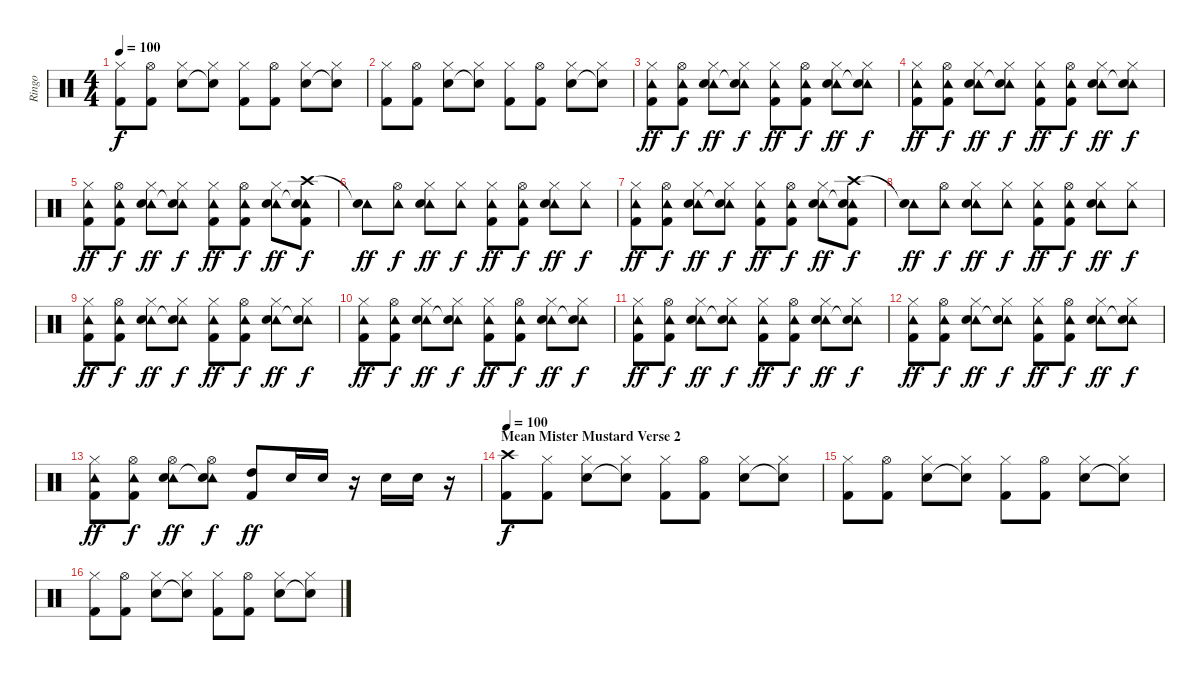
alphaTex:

\track ("Ringo" "Ringo") {instrument percussion}
\staff {score}
\articulation defaults
\ts (4 4)
\tempo 100
\clef neutral
\ks c
("Hi-Hat (closed)" "Kick (hit) 2").8{dy f} ("Hi-Hat (open)" "Kick (hit) 2").8 ("Hi-Hat (closed)" "Snare (hit) 2").8 ("Hi-Hat (closed)" "Snare (hit)"{t}).8 ("Hi-Hat (closed)" "Kick (hit) 2").8 ("Hi-Hat (open)" "Kick (hit) 2").8 ("Hi-Hat (closed)" "Snare (hit) 2").8 ("Hi-Hat (closed)" "Snare (hit)"{t}).8 |
("Hi-Hat (closed)" "Kick (hit) 2").8 ("Hi-Hat (open)" "Kick (hit) 2").8 ("Hi-Hat (closed)" "Snare (hit) 2").8 ("Hi-Hat (closed)" "Snare (hit)"{t}).8 ("Hi-Hat (closed)" "Kick (hit) 2").8 ("Hi-Hat (open)" "Kick (hit) 2").8 ("Hi-Hat (closed)" "Snare (hit) 2").8 ("Hi-Hat (closed)" "Snare (hit)"{t}).8 |
("Tambourine (hit)" "Hi-Hat (closed)" "Kick (hit) 2").8{dy ff} ("Tambourine (hit)" "Hi-Hat (open)" "Kick (hit) 2").8{dy f} ("Tambourine (hit)" "Hi-Hat (closed)" "Snare (hit) 2").8{dy ff} ("Tambourine (hit)" "Hi-Hat (closed)" "Snare (hit)"{t}).8{dy f} ("Tambourine (hit)" "Hi-Hat (closed)" "Kick (hit) 2").8{dy ff} ("Tambourine (hit)" "Hi-Hat (open)" "Kick (hit) 2").8{dy f} ("Tambourine (hit)" "Hi-Hat (closed)" "Snare (hit) 2").8{dy ff} ("Tambourine (hit)" "Hi-Hat (closed)" "Snare (hit)"{t}).8{dy f} |
("Tambourine (hit)" "Hi-Hat (closed)" "Kick (hit) 2").8{dy ff} ("Tambourine (hit)" "Hi-Hat (open)" "Kick (hit) 2").8{dy f} ("Tambourine (hit)" "Hi-Hat (closed)" "Snare (hit) 2").8{dy ff} ("Tambourine (hit)" "Hi-Hat (closed)" "Snare (hit)"{t}).8{dy f} ("Tambourine (hit)" "Hi-Hat (closed)" "Kick (hit) 2").8{dy ff} ("Tambourine (hit)" "Hi-Hat (open)" "Kick (hit) 2").8{dy f} ("Tambourine (hit)" "Hi-Hat (closed)" "Snare (hit) 2").8{dy ff} ("Tambourine (hit)" "Hi-Hat (closed)" "Snare (hit)"{t}).8{dy f} |
("Tambourine (hit)" "Hi-Hat (closed)" "Kick (hit) 2").8{dy ff} ("Tambourine (hit)" "Hi-Hat (open)" "Kick (hit) 2").8{dy f} ("Tambourine (hit)" "Hi-Hat (closed)" "Snare (hit) 2").8{dy ff} ("Tambourine (hit)" "Hi-Hat (closed)" "Snare (hit)"{t}).8{dy f} ("Tambourine (hit)" "Hi-Hat (closed)" "Kick (hit) 2").8{dy ff} ("Tambourine (hit)" "Hi-Hat (open)" "Kick (hit) 2").8{dy f} ("Tambourine (hit)" "Hi-Hat (closed)" "Snare (hit) 2").8{dy ff} ("Tambourine (hit)" "Crash high (hit)" "Snare (hit)"{t} "Kick (hit) 2").8{dy f} |
("Tambourine (hit)" "Snare (hit)"{t}).8{dy ff} ("Tambourine (hit)" "Hi-Hat (open)").8{dy f} ("Tambourine (hit)" "Hi-Hat (closed)" "Snare (hit) 2").8{dy ff} ("Tambourine (hit)" "Hi-Hat (closed)").8{dy f} ("Tambourine (hit)" "Hi-Hat (closed)" "Kick (hit) 2").8{dy ff} ("Tambourine (hit)" "Hi-Hat (open)" "Kick (hit) 2").8{dy f} ("Tambourine (hit)" "Hi-Hat (closed)" "Snare (hit) 2").8{dy ff} ("Tambourine (hit)" "Hi-Hat (closed)").8{dy f} |
("Tambourine (hit)" "Hi-Hat (closed)" "Kick (hit) 2").8{dy ff} ("Tambourine (hit)" "Hi-Hat (open)" "Kick (hit) 2").8{dy f} ("Tambourine (hit)" "Hi-Hat (closed)" "Snare (hit) 2").8{dy ff} ("Tambourine (hit)" "Hi-Hat (closed)" "Snare (hit)"{t}).8{dy f} ("Tambourine (hit)" "Hi-Hat (closed)" "Kick (hit) 2").8{dy ff} ("Tambourine (hit)" "Hi-Hat (open)" "Kick (hit) 2").8{dy f} ("Tambourine (hit)" "Hi-Hat (closed)" "Snare (hit) 2").8{dy ff} ("Tambourine (hit)" "Crash high (hit)" "Snare (hit)"{t} "Kick (hit) 2").8{dy f} |
("Tambourine (hit)" "Snare (hit)"{t}).8{dy ff} ("Tambourine (hit)" "Hi-Hat (open)").8{dy f} ("Tambourine (hit)" "Hi-Hat (closed)" "Snare (hit) 2").8{dy ff} ("Tambourine (hit)" "Hi-Hat (closed)").8{dy f} ("Tambourine (hit)" "Hi-Hat (closed)" "Kick (hit) 2").8{dy ff} ("Tambourine (hit)" "Hi-Hat (open)" "Kick (hit) 2").8{dy f} ("Tambourine (hit)" "Hi-Hat (closed)" "Snare (hit) 2").8{dy ff} ("Tambourine (hit)" "Hi-Hat (closed)").8{dy f} |
("Tambourine (hit)" "Hi-Hat (closed)" "Kick (hit) 2").8{dy ff} ("Tambourine (hit)" "Hi-Hat (open)" "Kick (hit) 2").8{dy f} ("Tambourine (hit)" "Hi-Hat (closed)" "Snare (hit) 2").8{dy ff} ("Tambourine (hit)" "Hi-Hat (closed)" "Snare (hit)"{t}).8{dy f} ("Tambourine (hit)" "Hi-Hat (closed)" "Kick (hit) 2").8{dy ff} ("Tambourine (hit)" "Hi-Hat (open)" "Kick (hit) 2").8{dy f} ("Tambourine (hit)" "Hi-Hat (closed)" "Snare (hit) 2").8{dy ff} ("Tambourine (hit)" "Hi-Hat (closed)" "Snare (hit)"{t}).8{dy f} |
("Tambourine (hit)" "Hi-Hat (closed)" "Kick (hit) 2").8{dy ff} ("Tambourine (hit)" "Hi-Hat (open)" "Kick (hit) 2").8{dy f} ("Tambourine (hit)" "Hi-Hat (closed)" "Snare (hit) 2").8{dy ff} ("Tambourine (hit)" "Hi-Hat (closed)" "Snare (hit)"{t}).8{dy f} ("Tambourine (hit)" "Hi-Hat (closed)" "Kick (hit) 2").8{dy ff} ("Tambourine (hit)" "Hi-Hat (open)" "Kick (hit) 2").8{dy f} ("Tambourine (hit)" "Hi-Hat (closed)" "Snare (hit) 2").8{dy ff} ("Tambourine (hit)" "Hi-Hat (closed)" "Snare (hit)"{t}).8{dy f} |
("Tambourine (hit)" "Hi-Hat (closed)" "Kick (hit) 2").8{dy ff} ("Tambourine (hit)" "Hi-Hat (open)" "Kick (hit) 2").8{dy f} ("Tambourine (hit)" "Hi-Hat (closed)" "Snare (hit) 2").8{dy ff} ("Tambourine (hit)" "Hi-Hat (closed)" "Snare (hit)"{t}).8{dy f} ("Tambourine (hit)" "Hi-Hat (closed)" "Kick (hit) 2").8{dy ff} ("Tambourine (hit)" "Hi-Hat (open)" "Kick (hit) 2").8{dy f} ("Tambourine (hit)" "Hi-Hat (closed)" "Snare (hit) 2").8{dy ff} ("Tambourine (hit)" "Hi-Hat (closed)" "Snare (hit)"{t}).8{dy f} |
("Tambourine (hit)" "Hi-Hat (closed)" "Kick (hit) 2").8{dy ff} ("Tambourine (hit)" "Hi-Hat (open)" "Kick (hit) 2").8{dy f} ("Tambourine (hit)" "Hi-Hat (closed)" "Snare (hit) 2").8{dy ff} ("Tambourine (hit)" "Hi-Hat (closed)" "Snare (hit)"{t}).8{dy f} ("Tambourine (hit)" "Hi-Hat (closed)" "Kick (hit) 2").8{dy ff} ("Tambourine (hit)" "Hi-Hat (open)" "Kick (hit) 2").8{dy f} ("Tambourine (hit)" "Hi-Hat (closed)" "Snare (hit) 2").8{dy ff} ("Tambourine (hit)" "Hi-Hat (closed)" "Snare (hit)"{t}).8{dy f} |
("Tambourine (hit)" "Hi-Hat (closed)" "Kick (hit) 2").8{dy ff} ("Tambourine (hit)" "Hi-Hat (open)" "Kick (hit) 2").8{dy f} ("Tambourine (hit)" "Hi-Hat (open)" "Snare (hit) 2").8{dy ff} ("Tambourine (hit)" "Hi-Hat (open)" "Snare (hit)"{t}).8{dy f} ("High Tom (hit)" "Kick (hit) 2").8{dy ff} "Snare (hit) 2".16 "Snare (hit) 2".16 r.16 "Snare (hit) 2".16 "Snare (hit) 2".16 r.16 |
\section ("" "Mean Mister Mustard Verse 2")
\tempo 100
("Crash high (hit)" "Kick (hit) 2").8{dy f volume 13} ("Hi-Hat (closed)" "Kick (hit) 2").8 ("Hi-Hat (closed)" "Snare (hit) 2").8 ("Hi-Hat (closed)" "Snare (hit)"{t}).8 ("Hi-Hat (closed)" "Kick (hit) 2").8 ("Hi-Hat (open)" "Kick (hit) 2").8 ("Hi-Hat (closed)" "Snare (hit) 2").8 ("Hi-Hat (closed)" "Snare (hit)"{t}).8 |
("Hi-Hat (closed)" "Kick (hit) 2").8 ("Hi-Hat (open)" "Kick (hit) 2").8 ("Hi-Hat (closed)" "Snare (hit) 2").8 ("Hi-Hat (closed)" "Snare (hit)"{t}).8 ("Hi-Hat (closed)" "Kick (hit) 2").8 ("Hi-Hat (open)" "Kick (hit) 2").8 ("Hi-Hat (closed)" "Snare (hit) 2").8 ("Hi-Hat (closed)" "Snare (hit)"{t}).8 |
("Hi-Hat (closed)" "Kick (hit) 2").8 ("Hi-Hat (open)" "Kick (hit) 2").8 ("Hi-Hat (closed)" "Snare (hit) 2").8 ("Hi-Hat (closed)" "Snare (hit)"{t}).8 ("Hi-Hat (closed)" "Kick (hit) 2").8 ("Hi-Hat (open)" "Kick (hit) 2").8 ("Hi-Hat (closed)" "Snare (hit) 2").8 ("Hi-Hat (closed)" "Snare (hit)"{t}).8
